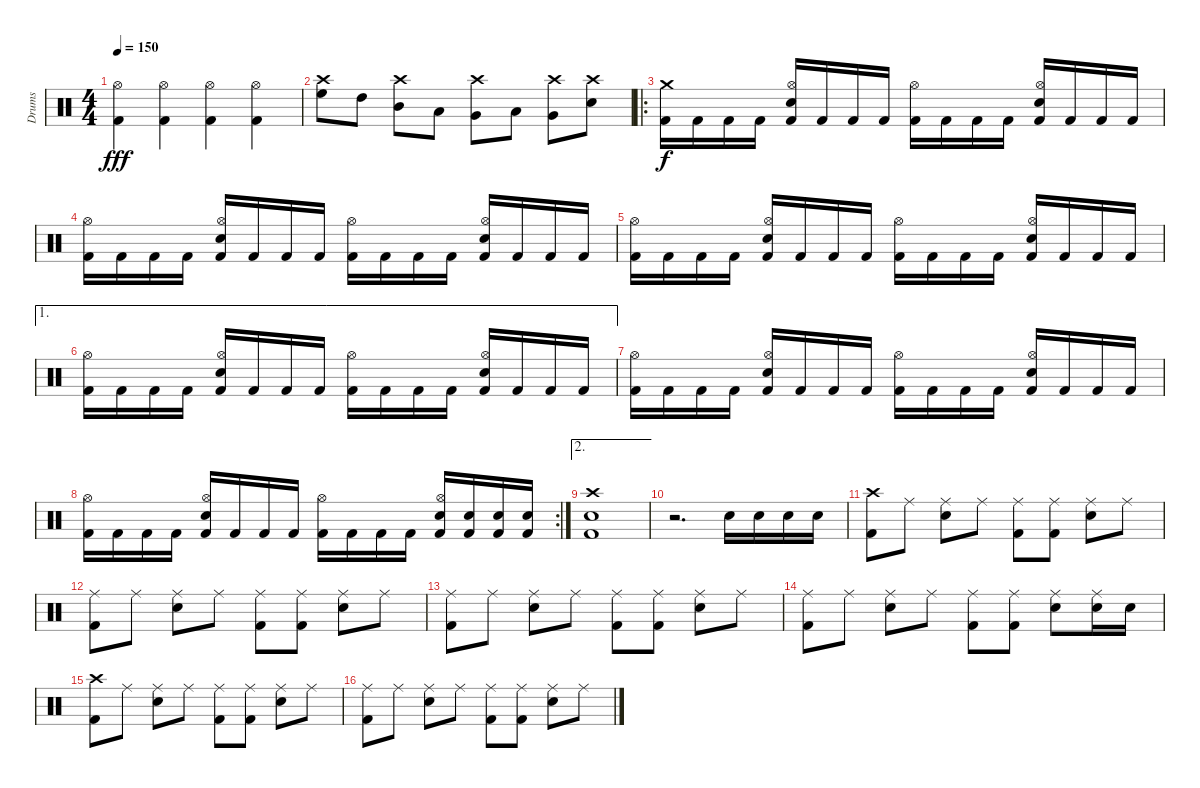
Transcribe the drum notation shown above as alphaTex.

\track ("Drums" "Drums") {instrument percussion}
\staff {score}
\articulation defaults
\ts (4 4)
\tempo 150
\clef neutral
\ks c
("Kick (hit) 2" "Hi-Hat (open)").4{dy fff} ("Kick (hit) 2" "Hi-Hat (open)").4 ("Kick (hit) 2" "Hi-Hat (open)").4 ("Kick (hit) 2" "Hi-Hat (open)").4 |
("High Floor Tom (hit)" "Crash high (hit)").8 "High Tom (hit)".8 ("Mid Tom (hit)" "Crash high (hit)").8 "Low Tom (hit)".8 ("Very Low Tom (hit)" "Crash high (hit)").8 "Low Floor Tom (hit)".8 ("Very Low Tom (hit)" "Crash high (hit)").8 ("Electric Snare (hit)" "Crash high (hit)").8 |
\ro
("Crash medium (hit)" "Kick (hit) 2").16{dy f} "Kick (hit) 2".16 "Kick (hit) 2".16 "Kick (hit) 2".16 ("Electric Snare (hit)" "Hi-Hat (open)" "Kick (hit) 2").16 "Kick (hit) 2".16 "Kick (hit) 2".16 "Kick (hit) 2".16 ("Hi-Hat (open)" "Kick (hit) 2").16 "Kick (hit) 2".16 "Kick (hit) 2".16 "Kick (hit) 2".16 ("Electric Snare (hit)" "Hi-Hat (open)" "Kick (hit) 2").16 "Kick (hit) 2".16 "Kick (hit) 2".16 "Kick (hit) 2".16 |
("Hi-Hat (open)" "Kick (hit) 2").16 "Kick (hit) 2".16 "Kick (hit) 2".16 "Kick (hit) 2".16 ("Electric Snare (hit)" "Hi-Hat (open)" "Kick (hit) 2").16 "Kick (hit) 2".16 "Kick (hit) 2".16 "Kick (hit) 2".16 ("Hi-Hat (open)" "Kick (hit) 2").16 "Kick (hit) 2".16 "Kick (hit) 2".16 "Kick (hit) 2".16 ("Electric Snare (hit)" "Hi-Hat (open)" "Kick (hit) 2").16 "Kick (hit) 2".16 "Kick (hit) 2".16 "Kick (hit) 2".16 |
("Hi-Hat (open)" "Kick (hit) 2").16 "Kick (hit) 2".16 "Kick (hit) 2".16 "Kick (hit) 2".16 ("Electric Snare (hit)" "Hi-Hat (open)" "Kick (hit) 2").16 "Kick (hit) 2".16 "Kick (hit) 2".16 "Kick (hit) 2".16 ("Hi-Hat (open)" "Kick (hit) 2").16 "Kick (hit) 2".16 "Kick (hit) 2".16 "Kick (hit) 2".16 ("Electric Snare (hit)" "Hi-Hat (open)" "Kick (hit) 2").16 "Kick (hit) 2".16 "Kick (hit) 2".16 "Kick (hit) 2".16 |
\ae 1
("Hi-Hat (open)" "Kick (hit) 2").16 "Kick (hit) 2".16 "Kick (hit) 2".16 "Kick (hit) 2".16 ("Electric Snare (hit)" "Hi-Hat (open)" "Kick (hit) 2").16 "Kick (hit) 2".16 "Kick (hit) 2".16 "Kick (hit) 2".16 ("Hi-Hat (open)" "Kick (hit) 2").16 "Kick (hit) 2".16 "Kick (hit) 2".16 "Kick (hit) 2".16 ("Electric Snare (hit)" "Hi-Hat (open)" "Kick (hit) 2").16 "Kick (hit) 2".16 "Kick (hit) 2".16 "Kick (hit) 2".16 |
("Hi-Hat (open)" "Kick (hit) 2").16 "Kick (hit) 2".16 "Kick (hit) 2".16 "Kick (hit) 2".16 ("Electric Snare (hit)" "Hi-Hat (open)" "Kick (hit) 2").16 "Kick (hit) 2".16 "Kick (hit) 2".16 "Kick (hit) 2".16 ("Hi-Hat (open)" "Kick (hit) 2").16 "Kick (hit) 2".16 "Kick (hit) 2".16 "Kick (hit) 2".16 ("Electric Snare (hit)" "Hi-Hat (open)" "Kick (hit) 2").16 "Kick (hit) 2".16 "Kick (hit) 2".16 "Kick (hit) 2".16 |
\rc 2
("Hi-Hat (open)" "Kick (hit) 2").16 "Kick (hit) 2".16 "Kick (hit) 2".16 "Kick (hit) 2".16 ("Electric Snare (hit)" "Hi-Hat (open)" "Kick (hit) 2").16 "Kick (hit) 2".16 "Kick (hit) 2".16 "Kick (hit) 2".16 ("Hi-Hat (open)" "Kick (hit) 2").16 "Kick (hit) 2".16 "Kick (hit) 2".16 "Kick (hit) 2".16 ("Electric Snare (hit)" "Hi-Hat (open)" "Kick (hit) 2").16 ("Electric Snare (hit)" "Kick (hit) 2").16 ("Electric Snare (hit)" "Kick (hit) 2").16 ("Electric Snare (hit)" "Kick (hit) 2").16 |
\ae 2
("Electric Snare (hit)" "Crash high (hit)" "Kick (hit) 2").1 |
r.2{d} "Electric Snare (hit)".16 "Electric Snare (hit)".16 "Electric Snare (hit)".16 "Electric Snare (hit)".16 |
("Crash high (hit)" "Kick (hit) 2").8 "Ride (middle)".8 ("Ride (middle)" "Electric Snare (hit)").8 "Ride (middle)".8 ("Ride (middle)" "Kick (hit) 2").8 ("Ride (middle)" "Kick (hit) 2").8 ("Ride (middle)" "Electric Snare (hit)").8 "Ride (middle)".8 |
("Ride (middle)" "Kick (hit) 2").8 "Ride (middle)".8 ("Ride (middle)" "Electric Snare (hit)").8 "Ride (middle)".8 ("Ride (middle)" "Kick (hit) 2").8 ("Ride (middle)" "Kick (hit) 2").8 ("Ride (middle)" "Electric Snare (hit)").8 "Ride (middle)".8 |
("Ride (middle)" "Kick (hit) 2").8 "Ride (middle)".8 ("Ride (middle)" "Electric Snare (hit)").8 "Ride (middle)".8 ("Ride (middle)" "Kick (hit) 2").8 ("Ride (middle)" "Kick (hit) 2").8 ("Ride (middle)" "Electric Snare (hit)").8 "Ride (middle)".8 |
("Ride (middle)" "Kick (hit) 2").8 "Ride (middle)".8 ("Ride (middle)" "Electric Snare (hit)").8 "Ride (middle)".8 ("Ride (middle)" "Kick (hit) 2").8 ("Ride (middle)" "Kick (hit) 2").8 ("Ride (middle)" "Electric Snare (hit)").8 ("Ride (middle)" "Electric Snare (hit)").16 "Electric Snare (hit)".16 |
("Crash high (hit)" "Kick (hit) 2").8 "Ride (middle)".8 ("Ride (middle)" "Electric Snare (hit)").8 "Ride (middle)".8 ("Ride (middle)" "Kick (hit) 2").8 ("Ride (middle)" "Kick (hit) 2").8 ("Ride (middle)" "Electric Snare (hit)").8 "Ride (middle)".8 |
("Ride (middle)" "Kick (hit) 2").8 "Ride (middle)".8 ("Ride (middle)" "Electric Snare (hit)").8 "Ride (middle)".8 ("Ride (middle)" "Kick (hit) 2").8 ("Ride (middle)" "Kick (hit) 2").8 ("Ride (middle)" "Electric Snare (hit)").8 "Ride (middle)".8
